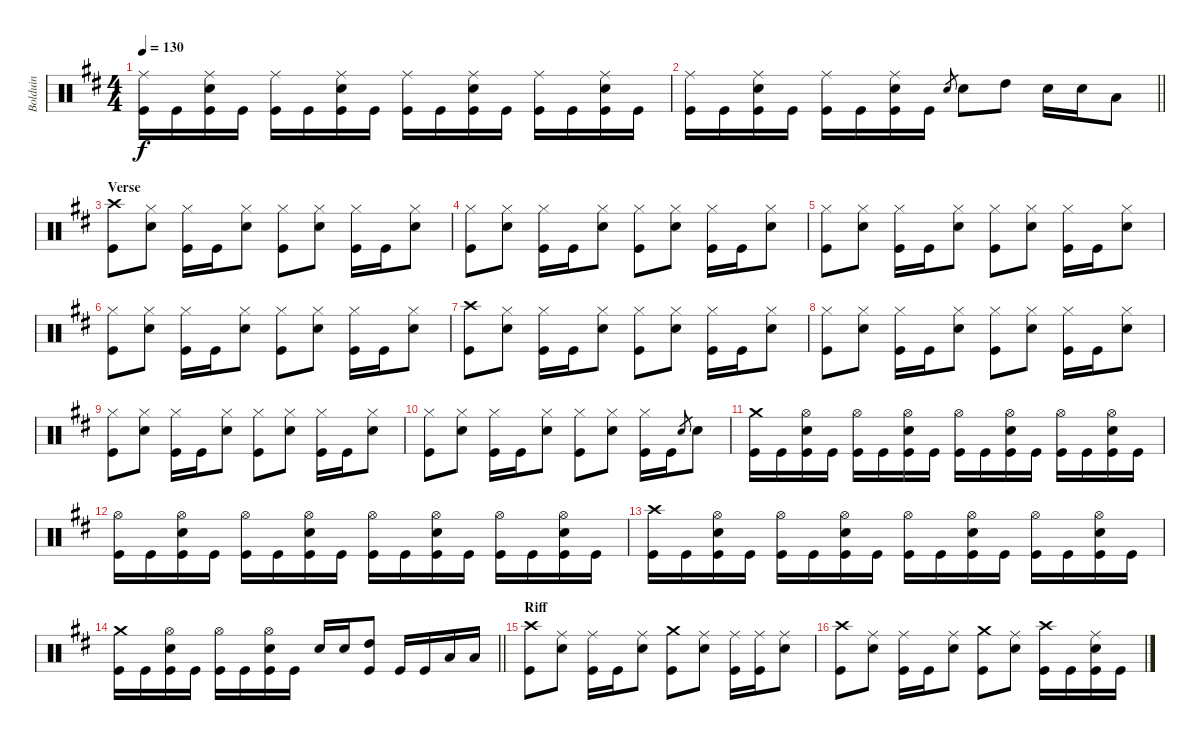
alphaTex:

\track ("Bolduin" "Bolduin") {instrument percussion}
\staff {score}
\articulation defaults
\ts (4 4)
\tempo 130
\clef neutral
\ks bminor
("Kick (hit)" "Ride (middle)").16{dy f} "Kick (hit)".16 ("Kick (hit)" "Ride (middle)" "Snare (hit) 2").16 "Kick (hit)".16 ("Kick (hit)" "Ride (middle)").16 "Kick (hit)".16 ("Kick (hit)" "Ride (middle)" "Snare (hit) 2").16 "Kick (hit)".16 ("Kick (hit)" "Ride (middle)").16 "Kick (hit)".16 ("Kick (hit)" "Ride (middle)" "Snare (hit) 2").16 "Kick (hit)".16 ("Kick (hit)" "Ride (middle)").16 "Kick (hit)".16 ("Kick (hit)" "Ride (middle)" "Snare (hit) 2").16 "Kick (hit)".16 |
\barLineRight lightlight
("Kick (hit)" "Ride (middle)").16 "Kick (hit)".16 ("Kick (hit)" "Ride (middle)" "Snare (hit) 2").16 "Kick (hit)".16 ("Kick (hit)" "Ride (middle)").16 "Kick (hit)".16 ("Kick (hit)" "Ride (middle)" "Snare (hit) 2").16 "Kick (hit)".16 "Snare (hit) 2".8{gr} "Snare (hit) 2".8 "High Tom (hit)".8 "Snare (hit) 2".16 "Snare (hit) 2".16 "Low Tom (hit)".8 |
\section ("" "Verse")
("Crash high (hit)" "Kick (hit)").8 ("Hi-Hat (closed)" "Snare (hit) 2").8 ("Hi-Hat (closed)" "Kick (hit)").16 "Kick (hit)".16 ("Hi-Hat (closed)" "Snare (hit) 2").8 ("Hi-Hat (closed)" "Kick (hit)").8 ("Hi-Hat (closed)" "Snare (hit) 2").8 ("Hi-Hat (closed)" "Kick (hit)").16 "Kick (hit)".16 ("Hi-Hat (closed)" "Snare (hit) 2").8 |
("Hi-Hat (closed)" "Kick (hit)").8 ("Hi-Hat (closed)" "Snare (hit) 2").8 ("Hi-Hat (closed)" "Kick (hit)").16 "Kick (hit)".16 ("Hi-Hat (closed)" "Snare (hit) 2").8 ("Hi-Hat (closed)" "Kick (hit)").8 ("Hi-Hat (closed)" "Snare (hit) 2").8 ("Hi-Hat (closed)" "Kick (hit)").16 "Kick (hit)".16 ("Hi-Hat (closed)" "Snare (hit) 2").8 |
("Hi-Hat (closed)" "Kick (hit)").8 ("Hi-Hat (closed)" "Snare (hit) 2").8 ("Hi-Hat (closed)" "Kick (hit)").16 "Kick (hit)".16 ("Hi-Hat (closed)" "Snare (hit) 2").8 ("Hi-Hat (closed)" "Kick (hit)").8 ("Hi-Hat (closed)" "Snare (hit) 2").8 ("Hi-Hat (closed)" "Kick (hit)").16 "Kick (hit)".16 ("Hi-Hat (closed)" "Snare (hit) 2").8 |
("Hi-Hat (closed)" "Kick (hit)").8 ("Hi-Hat (closed)" "Snare (hit) 2").8 ("Hi-Hat (closed)" "Kick (hit)").16 "Kick (hit)".16 ("Hi-Hat (closed)" "Snare (hit) 2").8 ("Hi-Hat (closed)" "Kick (hit)").8 ("Hi-Hat (closed)" "Snare (hit) 2").8 ("Hi-Hat (closed)" "Kick (hit)").16 "Kick (hit)".16 ("Snare (hit) 2" "Hi-Hat (closed)").8 |
("Crash high (hit)" "Kick (hit)").8 ("Hi-Hat (closed)" "Snare (hit) 2").8 ("Hi-Hat (closed)" "Kick (hit)").16 "Kick (hit)".16 ("Hi-Hat (closed)" "Snare (hit) 2").8 ("Hi-Hat (closed)" "Kick (hit)").8 ("Hi-Hat (closed)" "Snare (hit) 2").8 ("Hi-Hat (closed)" "Kick (hit)").16 "Kick (hit)".16 ("Hi-Hat (closed)" "Snare (hit) 2").8 |
("Hi-Hat (closed)" "Kick (hit)").8 ("Hi-Hat (closed)" "Snare (hit) 2").8 ("Hi-Hat (closed)" "Kick (hit)").16 "Kick (hit)".16 ("Snare (hit) 2" "Hi-Hat (closed)").8 ("Hi-Hat (closed)" "Kick (hit)").8 ("Hi-Hat (closed)" "Snare (hit) 2").8 ("Hi-Hat (closed)" "Kick (hit)").16 "Kick (hit)".16 ("Hi-Hat (closed)" "Snare (hit) 2").8 |
("Hi-Hat (closed)" "Kick (hit)").8 ("Hi-Hat (closed)" "Snare (hit) 2").8 ("Hi-Hat (closed)" "Kick (hit)").16 "Kick (hit)".16 ("Hi-Hat (closed)" "Snare (hit) 2").8 ("Hi-Hat (closed)" "Kick (hit)").8 ("Hi-Hat (closed)" "Snare (hit) 2").8 ("Hi-Hat (closed)" "Kick (hit)").16 "Kick (hit)".16 ("Hi-Hat (closed)" "Snare (hit) 2").8 |
("Hi-Hat (closed)" "Kick (hit)").8 ("Hi-Hat (closed)" "Snare (hit) 2").8 ("Hi-Hat (closed)" "Kick (hit)").16 "Kick (hit)".16 ("Hi-Hat (closed)" "Snare (hit) 2").8 ("Hi-Hat (closed)" "Kick (hit)").8 ("Hi-Hat (closed)" "Snare (hit) 2").8 ("Hi-Hat (closed)" "Kick (hit)").16 "Kick (hit)".16 "Snare (hit) 2".8{gr} "Snare (hit) 2".8 |
("Kick (hit)" "Crash medium (hit)").16 "Kick (hit)".16 ("Kick (hit)" "Hi-Hat (open)" "Snare (hit) 2").16 "Kick (hit)".16 ("Kick (hit)" "Hi-Hat (open)").16 "Kick (hit)".16 ("Kick (hit)" "Hi-Hat (open)" "Snare (hit) 2").16 "Kick (hit)".16 ("Kick (hit)" "Hi-Hat (open)").16 "Kick (hit)".16 ("Kick (hit)" "Hi-Hat (open)" "Snare (hit) 2").16 "Kick (hit)".16 ("Kick (hit)" "Hi-Hat (open)").16 "Kick (hit)".16 ("Kick (hit)" "Hi-Hat (open)" "Snare (hit) 2").16 "Kick (hit)".16 |
("Kick (hit)" "Hi-Hat (open)").16 "Kick (hit)".16 ("Kick (hit)" "Hi-Hat (open)" "Snare (hit) 2").16 "Kick (hit)".16 ("Kick (hit)" "Hi-Hat (open)").16 "Kick (hit)".16 ("Kick (hit)" "Hi-Hat (open)" "Snare (hit) 2").16 "Kick (hit)".16 ("Kick (hit)" "Hi-Hat (open)").16 "Kick (hit)".16 ("Kick (hit)" "Hi-Hat (open)" "Snare (hit) 2").16 "Kick (hit)".16 ("Kick (hit)" "Hi-Hat (open)").16 "Kick (hit)".16 ("Kick (hit)" "Hi-Hat (open)" "Snare (hit) 2").16 "Kick (hit)".16 |
("Kick (hit)" "Crash high (hit)").16 "Kick (hit)".16 ("Kick (hit)" "Hi-Hat (open)" "Snare (hit) 2").16 "Kick (hit)".16 ("Kick (hit)" "Hi-Hat (open)").16 "Kick (hit)".16 ("Kick (hit)" "Hi-Hat (open)" "Snare (hit) 2").16 "Kick (hit)".16 ("Kick (hit)" "Hi-Hat (open)").16 "Kick (hit)".16 ("Kick (hit)" "Hi-Hat (open)" "Snare (hit) 2").16 "Kick (hit)".16 ("Kick (hit)" "Hi-Hat (open)").16 "Kick (hit)".16 ("Kick (hit)" "Hi-Hat (open)" "Snare (hit) 2").16 "Kick (hit)".16 |
\barLineRight lightlight
("Kick (hit)" "Crash medium (hit)").16 "Kick (hit)".16 ("Kick (hit)" "Hi-Hat (open)" "Snare (hit) 2").16 "Kick (hit)".16 ("Kick (hit)" "Hi-Hat (open)").16 "Kick (hit)".16 ("Kick (hit)" "Hi-Hat (open)" "Snare (hit) 2").16 "Kick (hit)".16 "Snare (hit) 2".16 "Snare (hit) 2".16 ("High Tom (hit)" "Kick (hit)").8 "Kick (hit)".16 "Kick (hit)".16 "Low Tom (hit)".16 "Low Tom (hit)".16 |
\section ("" "Riff")
("Crash high (hit)" "Kick (hit)").8 ("Ride (middle)" "Snare (hit) 2").8 ("Ride (middle)" "Kick (hit)").16 "Kick (hit)".16 ("Ride (middle)" "Snare (hit) 2").8 ("Crash medium (hit)" "Kick (hit)").8 ("Ride (middle)" "Snare (hit) 2").8 ("Ride (middle)" "Kick (hit)").16 ("Ride (middle)" "Kick (hit)").16 ("Ride (middle)" "Snare (hit) 2").8 |
("Crash high (hit)" "Kick (hit)").8 ("Ride (middle)" "Snare (hit) 2").8 ("Ride (middle)" "Kick (hit)").16 "Kick (hit)".16 ("Ride (middle)" "Snare (hit) 2").8 ("Crash medium (hit)" "Kick (hit)").8 ("Ride (middle)" "Snare (hit) 2").8 ("Crash high (hit)" "Kick (hit)").16 "Kick (hit)".16 ("Ride (middle)" "Snare (hit) 2" "Kick (hit)").16 "Kick (hit)".16
